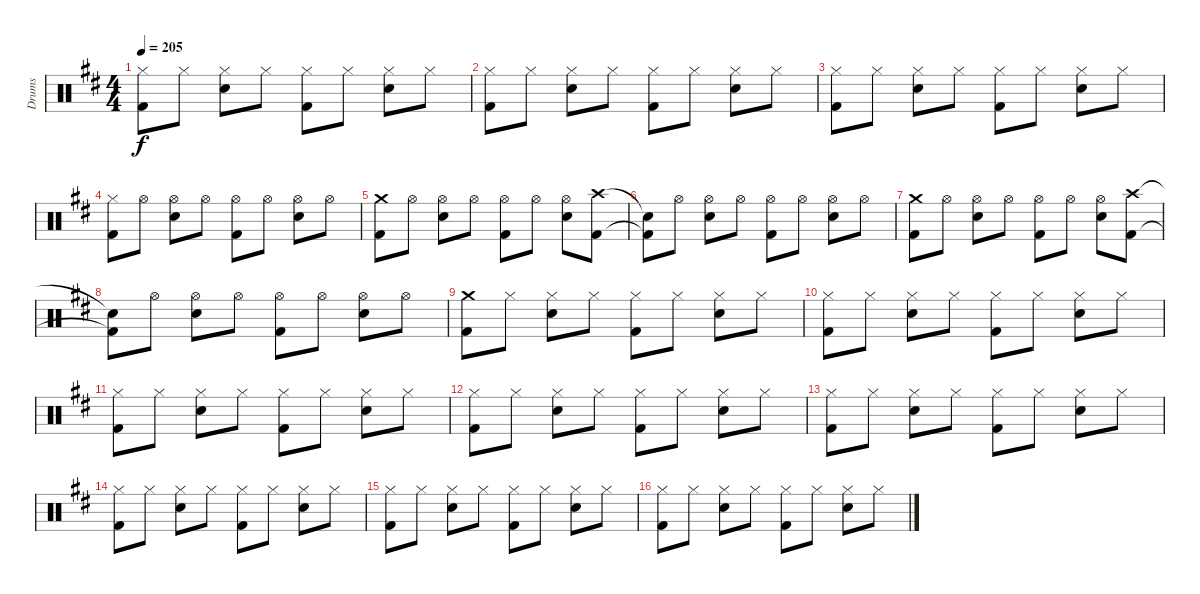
\track ("Drums" "Drums") {instrument percussion}
\staff {score}
\articulation defaults
\ts (4 4)
\tempo 205
\clef neutral
\ks d
("Hi-Hat (closed)" "Kick (hit) 2").8{dy f} "Hi-Hat (closed)".8 ("Hi-Hat (closed)" "Snare (hit) 2").8 "Hi-Hat (closed)".8 ("Hi-Hat (closed)" "Kick (hit) 2").8 "Hi-Hat (closed)".8 ("Hi-Hat (closed)" "Snare (hit) 2").8 "Hi-Hat (closed)".8 |
("Hi-Hat (closed)" "Kick (hit) 2").8 "Hi-Hat (closed)".8 ("Hi-Hat (closed)" "Snare (hit) 2").8 "Hi-Hat (closed)".8 ("Hi-Hat (closed)" "Kick (hit) 2").8 "Hi-Hat (closed)".8 ("Hi-Hat (closed)" "Snare (hit) 2").8 "Hi-Hat (closed)".8 |
("Hi-Hat (closed)" "Kick (hit) 2").8 "Hi-Hat (closed)".8 ("Hi-Hat (closed)" "Snare (hit) 2").8 "Hi-Hat (closed)".8 ("Hi-Hat (closed)" "Kick (hit) 2").8 "Hi-Hat (closed)".8 ("Hi-Hat (closed)" "Snare (hit) 2").8 "Hi-Hat (closed)".8 |
("Hi-Hat (closed)" "Kick (hit) 2").8 "Hi-Hat (open)".8 ("Hi-Hat (open)" "Snare (hit) 2").8 "Hi-Hat (open)".8 ("Hi-Hat (open)" "Kick (hit) 2").8 "Hi-Hat (open)".8 ("Hi-Hat (open)" "Snare (hit) 2").8 "Hi-Hat (open)".8 |
("Crash medium (hit)" "Kick (hit) 2").8 "Hi-Hat (open)".8 ("Hi-Hat (open)" "Snare (hit) 2").8 "Hi-Hat (open)".8 ("Hi-Hat (open)" "Kick (hit) 2").8 "Hi-Hat (open)".8 ("Hi-Hat (open)" "Snare (hit) 2").8 ("Crash high (hit)" "Kick (hit) 2").8 |
("Snare (hit)"{t} "Kick (hit) 2"{t}).8 "Hi-Hat (open)".8 ("Hi-Hat (open)" "Snare (hit) 2").8 "Hi-Hat (open)".8 ("Hi-Hat (open)" "Kick (hit) 2").8 "Hi-Hat (open)".8 ("Hi-Hat (open)" "Snare (hit) 2").8 "Hi-Hat (open)".8 |
("Crash medium (hit)" "Kick (hit) 2").8 "Hi-Hat (open)".8 ("Hi-Hat (open)" "Snare (hit) 2").8 "Hi-Hat (open)".8 ("Hi-Hat (open)" "Kick (hit) 2").8 "Hi-Hat (open)".8 ("Hi-Hat (open)" "Snare (hit) 2").8 ("Crash high (hit)" "Kick (hit) 2").8 |
("Snare (hit)"{t} "Kick (hit) 2"{t}).8 "Hi-Hat (open)".8 ("Hi-Hat (open)" "Snare (hit) 2").8 "Hi-Hat (open)".8 ("Hi-Hat (open)" "Kick (hit) 2").8 "Hi-Hat (open)".8 ("Hi-Hat (open)" "Snare (hit) 2").8 "Hi-Hat (open)".8 |
("Crash medium (hit)" "Kick (hit) 2").8 "Hi-Hat (closed)".8 ("Hi-Hat (closed)" "Snare (hit) 2").8 "Hi-Hat (closed)".8 ("Hi-Hat (closed)" "Kick (hit) 2").8 "Hi-Hat (closed)".8 ("Hi-Hat (closed)" "Snare (hit) 2").8 "Hi-Hat (closed)".8 |
("Hi-Hat (closed)" "Kick (hit) 2").8 "Hi-Hat (closed)".8 ("Hi-Hat (closed)" "Snare (hit) 2").8 "Hi-Hat (closed)".8 ("Hi-Hat (closed)" "Kick (hit) 2").8 "Hi-Hat (closed)".8 ("Hi-Hat (closed)" "Snare (hit) 2").8 "Hi-Hat (closed)".8 |
("Hi-Hat (closed)" "Kick (hit) 2").8 "Hi-Hat (closed)".8 ("Hi-Hat (closed)" "Snare (hit) 2").8 "Hi-Hat (closed)".8 ("Hi-Hat (closed)" "Kick (hit) 2").8 "Hi-Hat (closed)".8 ("Hi-Hat (closed)" "Snare (hit) 2").8 "Hi-Hat (closed)".8 |
("Hi-Hat (closed)" "Kick (hit) 2").8 "Hi-Hat (closed)".8 ("Hi-Hat (closed)" "Snare (hit) 2").8 "Hi-Hat (closed)".8 ("Hi-Hat (closed)" "Kick (hit) 2").8 "Hi-Hat (closed)".8 ("Hi-Hat (closed)" "Snare (hit) 2").8 "Hi-Hat (closed)".8 |
("Hi-Hat (closed)" "Kick (hit) 2").8 "Hi-Hat (closed)".8 ("Hi-Hat (closed)" "Snare (hit) 2").8 "Hi-Hat (closed)".8 ("Hi-Hat (closed)" "Kick (hit) 2").8 "Hi-Hat (closed)".8 ("Hi-Hat (closed)" "Snare (hit) 2").8 "Hi-Hat (closed)".8 |
("Hi-Hat (closed)" "Kick (hit) 2").8 "Hi-Hat (closed)".8 ("Hi-Hat (closed)" "Snare (hit) 2").8 "Hi-Hat (closed)".8 ("Hi-Hat (closed)" "Kick (hit) 2").8 "Hi-Hat (closed)".8 ("Hi-Hat (closed)" "Snare (hit) 2").8 "Hi-Hat (closed)".8 |
("Hi-Hat (closed)" "Kick (hit) 2").8 "Hi-Hat (closed)".8 ("Hi-Hat (closed)" "Snare (hit) 2").8 "Hi-Hat (closed)".8 ("Hi-Hat (closed)" "Kick (hit) 2").8 "Hi-Hat (closed)".8 ("Hi-Hat (closed)" "Snare (hit) 2").8 "Hi-Hat (closed)".8 |
("Hi-Hat (closed)" "Kick (hit) 2").8 "Hi-Hat (closed)".8 ("Hi-Hat (closed)" "Snare (hit) 2").8 "Hi-Hat (closed)".8 ("Hi-Hat (closed)" "Kick (hit) 2").8 "Hi-Hat (closed)".8 ("Hi-Hat (closed)" "Snare (hit) 2").8 "Hi-Hat (closed)".8
